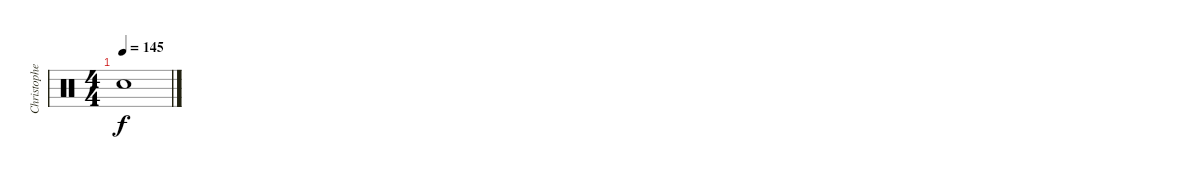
\track ("Christopher - Drums" "Christophe") {instrument percussion}
\staff {score}
\articulation defaults
\ts (4 4)
\tempo 145
\clef neutral
\ks c "Snare (hit) 2".1{dy f}
